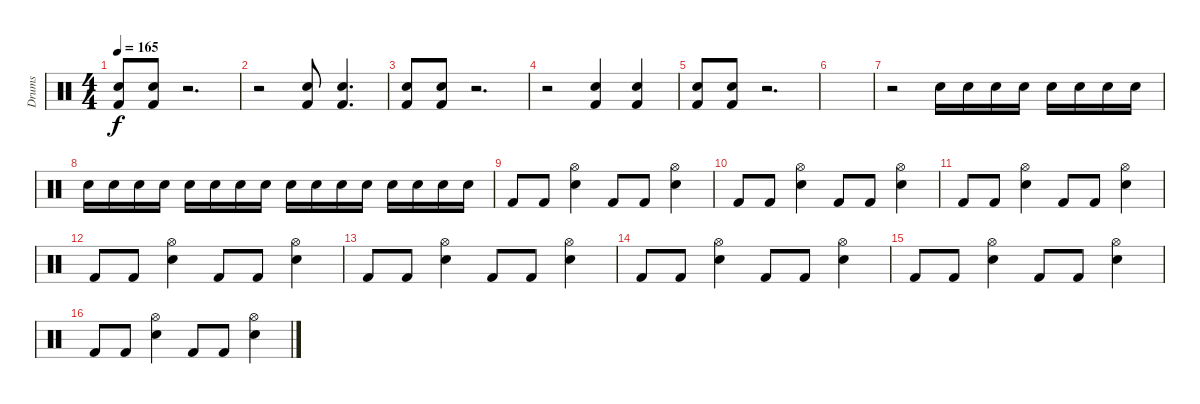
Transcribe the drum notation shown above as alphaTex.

\track ("Drums" "Drums") {instrument percussion}
\staff {score}
\articulation defaults
\ts (4 4)
\tempo 165
\clef neutral
\ks c
("Kick (hit) 2" "Snare (hit) 2").8{dy f} ("Kick (hit) 2" "Snare (hit) 2").8 r.2{d} |
r.2 ("Kick (hit) 2" "Snare (hit) 2").8 ("Kick (hit) 2" "Snare (hit) 2").4{d} |
("Kick (hit) 2" "Snare (hit) 2").8 ("Kick (hit) 2" "Snare (hit) 2").8 r.2{d} |
r.2 ("Kick (hit) 2" "Snare (hit) 2").4 ("Kick (hit) 2" "Snare (hit) 2").4 |
("Kick (hit) 2" "Snare (hit) 2").8 ("Kick (hit) 2" "Snare (hit) 2").8 r.2{d} |
|
r.2 "Snare (hit) 2".16 "Snare (hit) 2".16 "Snare (hit) 2".16 "Snare (hit) 2".16 "Snare (hit) 2".16 "Snare (hit) 2".16 "Snare (hit) 2".16 "Snare (hit) 2".16 |
"Snare (hit) 2".16 "Snare (hit) 2".16 "Snare (hit) 2".16 "Snare (hit) 2".16 "Snare (hit) 2".16 "Snare (hit) 2".16 "Snare (hit) 2".16 "Snare (hit) 2".16 "Snare (hit) 2".16 "Snare (hit) 2".16 "Snare (hit) 2".16 "Snare (hit) 2".16 "Snare (hit) 2".16 "Snare (hit) 2".16 "Snare (hit) 2".16 "Snare (hit) 2".16 |
"Kick (hit) 2".8 "Kick (hit) 2".8 ("Snare (hit) 2" "Hi-Hat (open)").4 "Kick (hit) 2".8 "Kick (hit) 2".8 ("Snare (hit) 2" "Hi-Hat (open)").4 |
"Kick (hit) 2".8 "Kick (hit) 2".8 ("Snare (hit) 2" "Hi-Hat (open)").4 "Kick (hit) 2".8 "Kick (hit) 2".8 ("Snare (hit) 2" "Hi-Hat (open)").4 |
"Kick (hit) 2".8 "Kick (hit) 2".8 ("Snare (hit) 2" "Hi-Hat (open)").4 "Kick (hit) 2".8 "Kick (hit) 2".8 ("Snare (hit) 2" "Hi-Hat (open)").4 |
"Kick (hit) 2".8 "Kick (hit) 2".8 ("Snare (hit) 2" "Hi-Hat (open)").4 "Kick (hit) 2".8 "Kick (hit) 2".8 ("Snare (hit) 2" "Hi-Hat (open)").4 |
"Kick (hit) 2".8 "Kick (hit) 2".8 ("Snare (hit) 2" "Hi-Hat (open)").4 "Kick (hit) 2".8 "Kick (hit) 2".8 ("Snare (hit) 2" "Hi-Hat (open)").4 |
"Kick (hit) 2".8 "Kick (hit) 2".8 ("Snare (hit) 2" "Hi-Hat (open)").4 "Kick (hit) 2".8 "Kick (hit) 2".8 ("Snare (hit) 2" "Hi-Hat (open)").4 |
"Kick (hit) 2".8 "Kick (hit) 2".8 ("Snare (hit) 2" "Hi-Hat (open)").4 "Kick (hit) 2".8 "Kick (hit) 2".8 ("Snare (hit) 2" "Hi-Hat (open)").4 |
"Kick (hit) 2".8 "Kick (hit) 2".8 ("Snare (hit) 2" "Hi-Hat (open)").4 "Kick (hit) 2".8 "Kick (hit) 2".8 ("Snare (hit) 2" "Hi-Hat (open)").4
